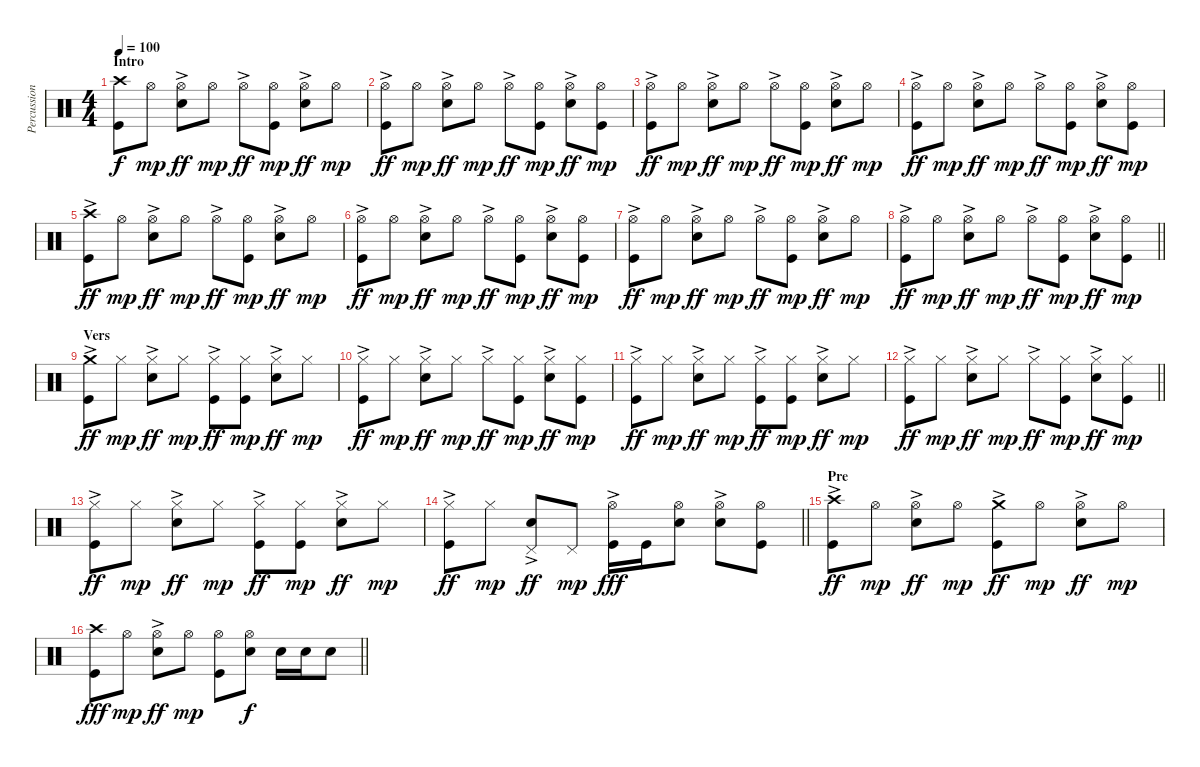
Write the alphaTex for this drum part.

\track ("Percussions" "Percussion") {instrument percussion}
\staff {score}
\articulation defaults
\ts (4 4)
\section ("" "Intro")
\tempo 100
\clef neutral
\ks c
("Crash high (hit)" "Kick (hit)").8{dy f} "Hi-Hat (open)".8{dy mp} ("Hi-Hat (open)"{ac} "Snare (hit) 2").8{dy ff} "Hi-Hat (open)".8{dy mp} "Hi-Hat (open)"{ac}.8{dy ff} ("Hi-Hat (open)" "Kick (hit)").8{dy mp} ("Hi-Hat (open)"{ac} "Snare (hit) 2").8{dy ff} "Hi-Hat (open)".8{dy mp} |
("Hi-Hat (open)"{ac} "Kick (hit)").8{dy ff} "Hi-Hat (open)".8{dy mp} ("Hi-Hat (open)"{ac} "Snare (hit) 2").8{dy ff} "Hi-Hat (open)".8{dy mp} "Hi-Hat (open)"{ac}.8{dy ff} ("Hi-Hat (open)" "Kick (hit)").8{dy mp} ("Hi-Hat (open)"{ac} "Snare (hit) 2").8{dy ff} ("Hi-Hat (open)" "Kick (hit)").8{dy mp} |
("Hi-Hat (open)"{ac} "Kick (hit)").8{dy ff} "Hi-Hat (open)".8{dy mp} ("Hi-Hat (open)"{ac} "Snare (hit) 2").8{dy ff} "Hi-Hat (open)".8{dy mp} "Hi-Hat (open)"{ac}.8{dy ff} ("Hi-Hat (open)" "Kick (hit)").8{dy mp} ("Hi-Hat (open)"{ac} "Snare (hit) 2").8{dy ff} "Hi-Hat (open)".8{dy mp} |
("Hi-Hat (open)"{ac} "Kick (hit)").8{dy ff} "Hi-Hat (open)".8{dy mp} ("Hi-Hat (open)"{ac} "Snare (hit) 2").8{dy ff} "Hi-Hat (open)".8{dy mp} "Hi-Hat (open)"{ac}.8{dy ff} ("Hi-Hat (open)" "Kick (hit)").8{dy mp} ("Hi-Hat (open)"{ac} "Snare (hit) 2").8{dy ff} ("Hi-Hat (open)" "Kick (hit)").8{dy mp} |
("Crash high (hit)"{ac} "Kick (hit)").8{dy ff} "Hi-Hat (open)".8{dy mp} ("Hi-Hat (open)"{ac} "Snare (hit) 2").8{dy ff} "Hi-Hat (open)".8{dy mp} "Hi-Hat (open)"{ac}.8{dy ff} ("Hi-Hat (open)" "Kick (hit)").8{dy mp} ("Hi-Hat (open)"{ac} "Snare (hit) 2").8{dy ff} "Hi-Hat (open)".8{dy mp} |
("Hi-Hat (open)"{ac} "Kick (hit)").8{dy ff} "Hi-Hat (open)".8{dy mp} ("Hi-Hat (open)"{ac} "Snare (hit) 2").8{dy ff} "Hi-Hat (open)".8{dy mp} "Hi-Hat (open)"{ac}.8{dy ff} ("Hi-Hat (open)" "Kick (hit)").8{dy mp} ("Hi-Hat (open)"{ac} "Snare (hit) 2").8{dy ff} ("Hi-Hat (open)" "Kick (hit)").8{dy mp} |
("Hi-Hat (open)"{ac} "Kick (hit)").8{dy ff} "Hi-Hat (open)".8{dy mp} ("Hi-Hat (open)"{ac} "Snare (hit) 2").8{dy ff} "Hi-Hat (open)".8{dy mp} "Hi-Hat (open)"{ac}.8{dy ff} ("Hi-Hat (open)" "Kick (hit)").8{dy mp} ("Hi-Hat (open)"{ac} "Snare (hit) 2").8{dy ff} "Hi-Hat (open)".8{dy mp} |
\barLineRight lightlight
("Hi-Hat (open)"{ac} "Kick (hit)").8{dy ff} "Hi-Hat (open)".8{dy mp} ("Hi-Hat (open)"{ac} "Snare (hit) 2").8{dy ff} "Hi-Hat (open)".8{dy mp} "Hi-Hat (open)"{ac}.8{dy ff} ("Hi-Hat (open)" "Kick (hit)").8{dy mp} ("Hi-Hat (open)"{ac} "Snare (hit) 2").8{dy ff} ("Hi-Hat (open)" "Kick (hit)").8{dy mp} |
\section ("" "Vers")
("Crash medium (hit)"{ac} "Kick (hit)").8{dy ff} "Hi-Hat (closed)".8{dy mp} ("Hi-Hat (closed)"{ac} "Snare (hit) 2").8{dy ff} "Hi-Hat (closed)".8{dy mp} ("Hi-Hat (closed)"{ac} "Kick (hit)").8{dy ff} ("Hi-Hat (closed)" "Kick (hit)").8{dy mp} ("Hi-Hat (closed)"{ac} "Snare (hit) 2").8{dy ff} "Hi-Hat (closed)".8{dy mp} |
("Hi-Hat (closed)"{ac} "Kick (hit)").8{dy ff} "Hi-Hat (closed)".8{dy mp} ("Hi-Hat (closed)"{ac} "Snare (hit) 2").8{dy ff} "Hi-Hat (closed)".8{dy mp} "Hi-Hat (closed)"{ac}.8{dy ff} ("Hi-Hat (closed)" "Kick (hit)").8{dy mp} ("Hi-Hat (closed)"{ac} "Snare (hit) 2").8{dy ff} ("Hi-Hat (closed)" "Kick (hit)").8{dy mp} |
("Hi-Hat (closed)"{ac} "Kick (hit)").8{dy ff} "Hi-Hat (closed)".8{dy mp} ("Hi-Hat (closed)"{ac} "Snare (hit) 2").8{dy ff} "Hi-Hat (closed)".8{dy mp} ("Hi-Hat (closed)"{ac} "Kick (hit)").8{dy ff} ("Hi-Hat (closed)" "Kick (hit)").8{dy mp} ("Hi-Hat (closed)"{ac} "Snare (hit) 2").8{dy ff} "Hi-Hat (closed)".8{dy mp} |
\barLineRight lightlight
("Hi-Hat (closed)"{ac} "Kick (hit)").8{dy ff} "Hi-Hat (closed)".8{dy mp} ("Hi-Hat (closed)"{ac} "Snare (hit) 2").8{dy ff} "Hi-Hat (closed)".8{dy mp} "Hi-Hat (closed)"{ac}.8{dy ff} ("Hi-Hat (closed)" "Kick (hit)").8{dy mp} ("Hi-Hat (closed)"{ac} "Snare (hit) 2").8{dy ff} ("Hi-Hat (closed)" "Kick (hit)").8{dy mp} |
("Hi-Hat (closed)"{ac} "Kick (hit)").8{dy ff} "Hi-Hat (closed)".8{dy mp} ("Hi-Hat (closed)"{ac} "Snare (hit) 2").8{dy ff} "Hi-Hat (closed)".8{dy mp} ("Hi-Hat (closed)"{ac} "Kick (hit)").8{dy ff} ("Hi-Hat (closed)" "Kick (hit)").8{dy mp} ("Hi-Hat (closed)"{ac} "Snare (hit) 2").8{dy ff} "Hi-Hat (closed)".8{dy mp} |
\barLineRight lightlight
("Hi-Hat (closed)"{ac} "Kick (hit)").8{dy ff} "Hi-Hat (closed)".8{dy mp} ("Pedal Hi-Hat (hit)"{ac} "Snare (hit) 2").8{dy ff} "Pedal Hi-Hat (hit)".8{dy mp} ("Hi-Hat (open)"{ac} "Kick (hit)").16{dy fff} "Kick (hit)".16 ("Hi-Hat (open)" "Snare (hit) 2").8 ("Hi-Hat (open)"{ac} "Snare (hit) 2").8 ("Hi-Hat (open)" "Kick (hit)").8 |
\section ("" "Pre")
("Crash high (hit)"{ac} "Kick (hit)").8{dy ff} "Hi-Hat (open)".8{dy mp} ("Hi-Hat (open)"{ac} "Snare (hit) 2").8{dy ff} "Hi-Hat (open)".8{dy mp} ("Crash medium (hit)"{ac} "Kick (hit)").8{dy ff} "Hi-Hat (open)".8{dy mp} ("Hi-Hat (open)"{ac} "Snare (hit) 2").8{dy ff} "Hi-Hat (open)".8{dy mp} |
\barLineRight lightlight
("Crash high (hit)" "Kick (hit)").8{dy fff} "Hi-Hat (open)".8{dy mp} ("Hi-Hat (open)"{ac} "Snare (hit) 2").8{dy ff} "Hi-Hat (open)".8{dy mp} ("Hi-Hat (open)" "Kick (hit)").8 ("Hi-Hat (open)" "Snare (hit) 2").8{dy f} "Snare (hit) 2".16 "Snare (hit) 2".16 "Snare (hit) 2".8
